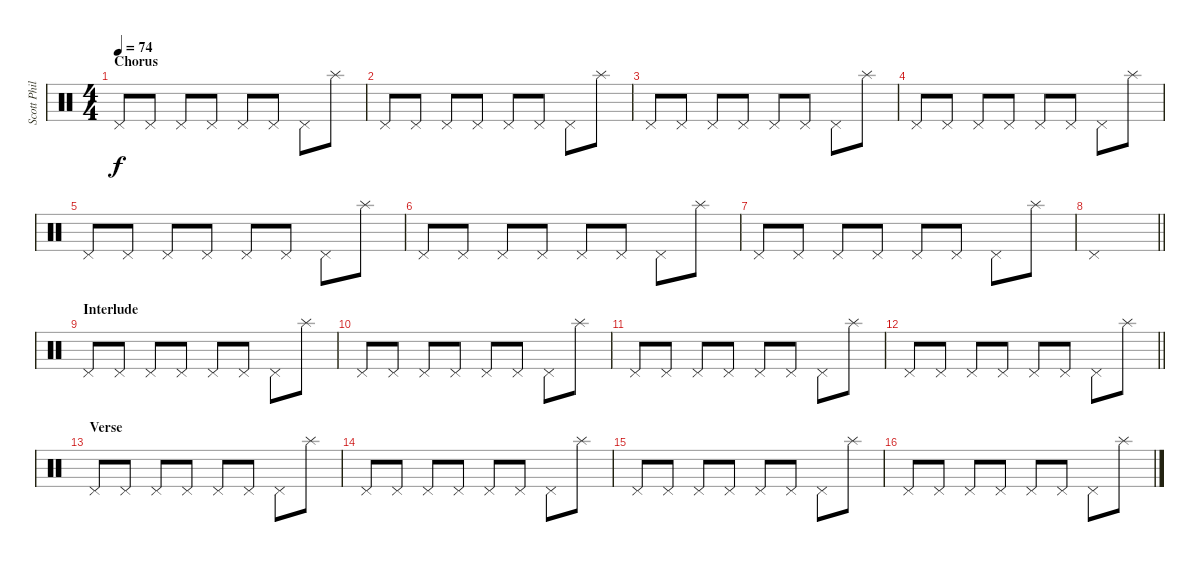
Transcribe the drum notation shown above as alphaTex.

\track ("Scott Phillips (Drums)" "Scott Phil") {instrument percussion}
\staff {score}
\articulation defaults
\ts (4 4)
\section ("" "Chorus")
\tempo 74
\clef neutral
\ks c "Pedal Hi-Hat (hit)".8{dy f} "Pedal Hi-Hat (hit)".8 "Pedal Hi-Hat (hit)".8 "Pedal Hi-Hat (hit)".8 "Pedal Hi-Hat (hit)".8 "Pedal Hi-Hat (hit)".8 "Pedal Hi-Hat (hit)".8 "Splash (hit)".8
|
"Pedal Hi-Hat (hit)".8 "Pedal Hi-Hat (hit)".8 "Pedal Hi-Hat (hit)".8 "Pedal Hi-Hat (hit)".8 "Pedal Hi-Hat (hit)".8 "Pedal Hi-Hat (hit)".8 "Pedal Hi-Hat (hit)".8 "Splash (hit)".8 |
"Pedal Hi-Hat (hit)".8 "Pedal Hi-Hat (hit)".8 "Pedal Hi-Hat (hit)".8 "Pedal Hi-Hat (hit)".8 "Pedal Hi-Hat (hit)".8 "Pedal Hi-Hat (hit)".8 "Pedal Hi-Hat (hit)".8 "Splash (hit)".8 |
"Pedal Hi-Hat (hit)".8 "Pedal Hi-Hat (hit)".8 "Pedal Hi-Hat (hit)".8 "Pedal Hi-Hat (hit)".8 "Pedal Hi-Hat (hit)".8 "Pedal Hi-Hat (hit)".8 "Pedal Hi-Hat (hit)".8 "Splash (hit)".8 |
"Pedal Hi-Hat (hit)".8 "Pedal Hi-Hat (hit)".8 "Pedal Hi-Hat (hit)".8 "Pedal Hi-Hat (hit)".8 "Pedal Hi-Hat (hit)".8 "Pedal Hi-Hat (hit)".8 "Pedal Hi-Hat (hit)".8 "Splash (hit)".8 |
"Pedal Hi-Hat (hit)".8 "Pedal Hi-Hat (hit)".8 "Pedal Hi-Hat (hit)".8 "Pedal Hi-Hat (hit)".8 "Pedal Hi-Hat (hit)".8 "Pedal Hi-Hat (hit)".8 "Pedal Hi-Hat (hit)".8 "Splash (hit)".8 |
"Pedal Hi-Hat (hit)".8 "Pedal Hi-Hat (hit)".8 "Pedal Hi-Hat (hit)".8 "Pedal Hi-Hat (hit)".8 "Pedal Hi-Hat (hit)".8 "Pedal Hi-Hat (hit)".8 "Pedal Hi-Hat (hit)".8 "Splash (hit)".8 |
\barLineRight lightlight "Pedal Hi-Hat (hit)".1
|
\section ("" "Interlude")
"Pedal Hi-Hat (hit)".8 "Pedal Hi-Hat (hit)".8 "Pedal Hi-Hat (hit)".8 "Pedal Hi-Hat (hit)".8 "Pedal Hi-Hat (hit)".8 "Pedal Hi-Hat (hit)".8 "Pedal Hi-Hat (hit)".8 "Splash (hit)".8 |
"Pedal Hi-Hat (hit)".8 "Pedal Hi-Hat (hit)".8 "Pedal Hi-Hat (hit)".8 "Pedal Hi-Hat (hit)".8 "Pedal Hi-Hat (hit)".8 "Pedal Hi-Hat (hit)".8 "Pedal Hi-Hat (hit)".8 "Splash (hit)".8 |
"Pedal Hi-Hat (hit)".8 "Pedal Hi-Hat (hit)".8 "Pedal Hi-Hat (hit)".8 "Pedal Hi-Hat (hit)".8 "Pedal Hi-Hat (hit)".8 "Pedal Hi-Hat (hit)".8 "Pedal Hi-Hat (hit)".8 "Splash (hit)".8 |
\barLineRight lightlight "Pedal Hi-Hat (hit)".8 "Pedal Hi-Hat (hit)".8 "Pedal Hi-Hat (hit)".8 "Pedal Hi-Hat (hit)".8 "Pedal Hi-Hat (hit)".8 "Pedal Hi-Hat (hit)".8 "Pedal Hi-Hat (hit)".8 "Splash (hit)".8
|
\section ("" "Verse")
"Pedal Hi-Hat (hit)".8 "Pedal Hi-Hat (hit)".8 "Pedal Hi-Hat (hit)".8 "Pedal Hi-Hat (hit)".8 "Pedal Hi-Hat (hit)".8 "Pedal Hi-Hat (hit)".8 "Pedal Hi-Hat (hit)".8 "Splash (hit)".8 |
"Pedal Hi-Hat (hit)".8 "Pedal Hi-Hat (hit)".8 "Pedal Hi-Hat (hit)".8 "Pedal Hi-Hat (hit)".8 "Pedal Hi-Hat (hit)".8 "Pedal Hi-Hat (hit)".8 "Pedal Hi-Hat (hit)".8 "Splash (hit)".8 |
"Pedal Hi-Hat (hit)".8 "Pedal Hi-Hat (hit)".8 "Pedal Hi-Hat (hit)".8 "Pedal Hi-Hat (hit)".8 "Pedal Hi-Hat (hit)".8 "Pedal Hi-Hat (hit)".8 "Pedal Hi-Hat (hit)".8 "Splash (hit)".8 |
"Pedal Hi-Hat (hit)".8 "Pedal Hi-Hat (hit)".8 "Pedal Hi-Hat (hit)".8 "Pedal Hi-Hat (hit)".8 "Pedal Hi-Hat (hit)".8 "Pedal Hi-Hat (hit)".8 "Pedal Hi-Hat (hit)".8 "Splash (hit)".8
